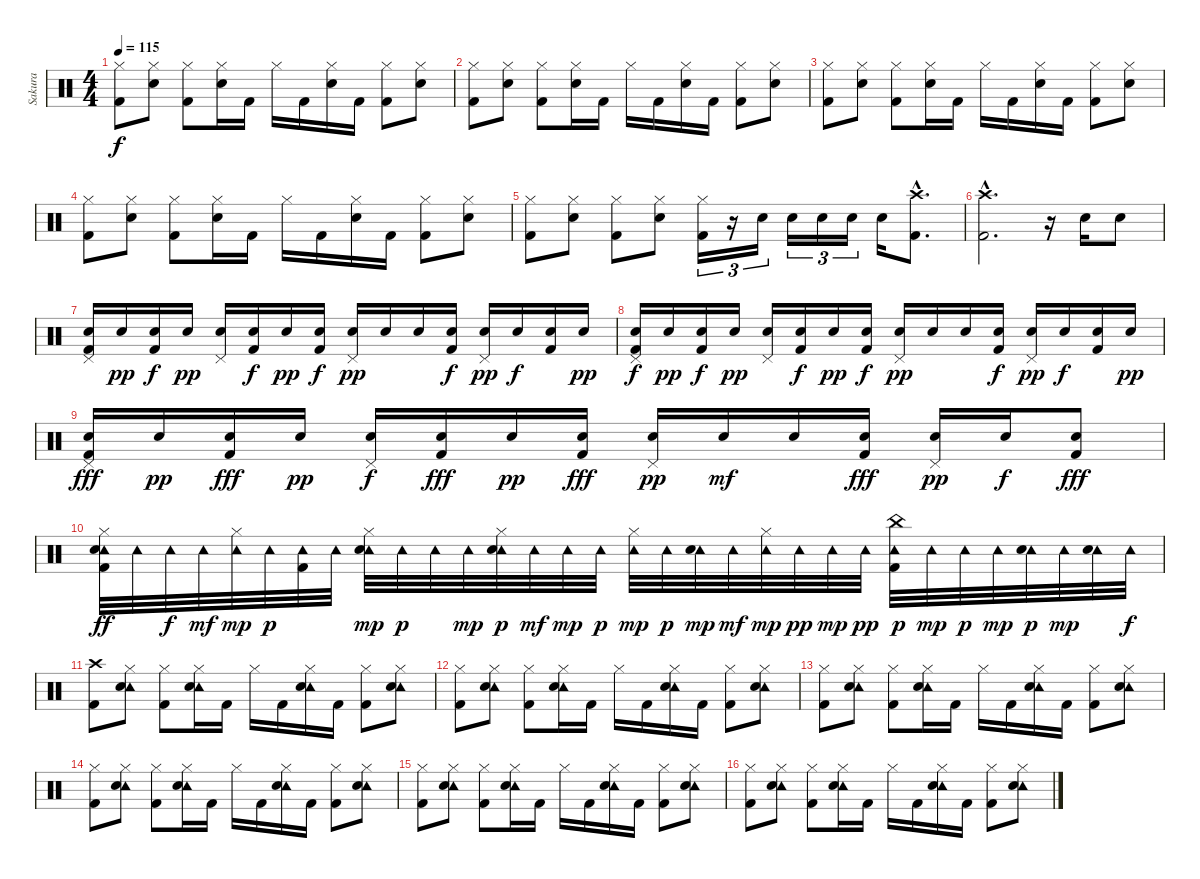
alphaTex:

\track ("Sakura" "Sakura") {instrument percussion}
\staff {score}
\articulation defaults
\ts (4 4)
\tempo 115
\clef neutral
\ks c
("Hi-Hat (closed)" "Kick (hit) 2").8{dy f} ("Hi-Hat (closed)" "Electric Snare (hit)").8 ("Hi-Hat (closed)" "Kick (hit) 2").8 ("Hi-Hat (closed)" "Electric Snare (hit)").16 "Kick (hit) 2".16 "Hi-Hat (closed)".16 "Kick (hit) 2".16 ("Hi-Hat (closed)" "Electric Snare (hit)").16 "Kick (hit) 2".16 ("Hi-Hat (closed)" "Kick (hit) 2").8 ("Hi-Hat (closed)" "Electric Snare (hit)").8 |
("Hi-Hat (closed)" "Kick (hit) 2").8 ("Hi-Hat (closed)" "Electric Snare (hit)").8 ("Hi-Hat (closed)" "Kick (hit) 2").8 ("Hi-Hat (closed)" "Electric Snare (hit)").16 "Kick (hit) 2".16 "Hi-Hat (closed)".16 "Kick (hit) 2".16 ("Hi-Hat (closed)" "Electric Snare (hit)").16 "Kick (hit) 2".16 ("Hi-Hat (closed)" "Kick (hit) 2").8 ("Hi-Hat (closed)" "Electric Snare (hit)").8 |
("Hi-Hat (closed)" "Kick (hit) 2").8 ("Hi-Hat (closed)" "Electric Snare (hit)").8 ("Hi-Hat (closed)" "Kick (hit) 2").8 ("Hi-Hat (closed)" "Electric Snare (hit)").16 "Kick (hit) 2".16 "Hi-Hat (closed)".16 "Kick (hit) 2".16 ("Hi-Hat (closed)" "Electric Snare (hit)").16 "Kick (hit) 2".16 ("Hi-Hat (closed)" "Kick (hit) 2").8 ("Hi-Hat (closed)" "Electric Snare (hit)").8 |
("Hi-Hat (closed)" "Kick (hit) 2").8 ("Hi-Hat (closed)" "Electric Snare (hit)").8 ("Hi-Hat (closed)" "Kick (hit) 2").8 ("Hi-Hat (closed)" "Electric Snare (hit)").16 "Kick (hit) 2".16 "Hi-Hat (closed)".16 "Kick (hit) 2".16 ("Hi-Hat (closed)" "Electric Snare (hit)").16 "Kick (hit) 2".16 ("Hi-Hat (closed)" "Kick (hit) 2").8 ("Hi-Hat (closed)" "Electric Snare (hit)").8 |
("Hi-Hat (closed)" "Kick (hit) 2").8 ("Hi-Hat (closed)" "Electric Snare (hit)").8 ("Hi-Hat (closed)" "Kick (hit) 2").8 ("Hi-Hat (closed)" "Electric Snare (hit)").8 ("Hi-Hat (closed)" "Kick (hit) 2").16{tu (3 2)} r.16{tu (3 2)} "Electric Snare (hit)".16{tu (3 2)} "Electric Snare (hit)".16{tu (3 2)} "Electric Snare (hit)".16{tu (3 2)} "Electric Snare (hit)".16{tu (3 2)} "Electric Snare (hit)".16 ("Crash high (hit)"{hac} "Kick (hit) 2"{hac}).8{d} |
("Crash high (hit)"{hac} "Kick (hit) 2"{hac}).2{d} r.16 "Electric Snare (hit)".16 "Electric Snare (hit)".8 |
("Pedal Hi-Hat (hit)" "Electric Snare (hit)" "Kick (hit) 2").16 "Electric Snare (hit)".16{dy pp} ("Electric Snare (hit)" "Kick (hit) 2").16{dy f} "Electric Snare (hit)".16{dy pp} ("Pedal Hi-Hat (hit)" "Electric Snare (hit)").16 ("Electric Snare (hit)" "Kick (hit) 2").16{dy f} "Electric Snare (hit)".16{dy pp} ("Electric Snare (hit)" "Kick (hit) 2").16{dy f} ("Pedal Hi-Hat (hit)" "Electric Snare (hit)").16{dy pp} "Electric Snare (hit)".16 "Electric Snare (hit)".16 ("Electric Snare (hit)" "Kick (hit) 2").16{dy f} ("Pedal Hi-Hat (hit)" "Electric Snare (hit)").16{dy pp} "Electric Snare (hit)".16{dy f} ("Electric Snare (hit)" "Kick (hit) 2").16 "Electric Snare (hit)".16{dy pp} |
("Pedal Hi-Hat (hit)" "Electric Snare (hit)" "Kick (hit) 2").16{dy f} "Electric Snare (hit)".16{dy pp} ("Electric Snare (hit)" "Kick (hit) 2").16{dy f} "Electric Snare (hit)".16{dy pp} ("Pedal Hi-Hat (hit)" "Electric Snare (hit)").16 ("Electric Snare (hit)" "Kick (hit) 2").16{dy f} "Electric Snare (hit)".16{dy pp} ("Electric Snare (hit)" "Kick (hit) 2").16{dy f} ("Pedal Hi-Hat (hit)" "Electric Snare (hit)").16{dy pp} "Electric Snare (hit)".16 "Electric Snare (hit)".16 ("Electric Snare (hit)" "Kick (hit) 2").16{dy f} ("Pedal Hi-Hat (hit)" "Electric Snare (hit)").16{dy pp} "Electric Snare (hit)".16{dy f} ("Electric Snare (hit)" "Kick (hit) 2").16 "Electric Snare (hit)".16{dy pp} |
("Pedal Hi-Hat (hit)" "Electric Snare (hit)" "Kick (hit) 2").16{dy fff} "Electric Snare (hit)".16{dy pp} ("Electric Snare (hit)" "Kick (hit) 2").16{dy fff} "Electric Snare (hit)".16{dy pp} ("Pedal Hi-Hat (hit)" "Electric Snare (hit)").16{dy f} ("Electric Snare (hit)" "Kick (hit) 2").16{dy fff} "Electric Snare (hit)".16{dy pp} ("Electric Snare (hit)" "Kick (hit) 2").16{dy fff} ("Pedal Hi-Hat (hit)" "Electric Snare (hit)").16{dy pp} "Electric Snare (hit)".16{dy mf} "Electric Snare (hit)".16 ("Electric Snare (hit)" "Kick (hit) 2").16{dy fff} ("Pedal Hi-Hat (hit)" "Electric Snare (hit)").16{dy pp} "Electric Snare (hit)".16{dy f} ("Electric Snare (hit)" "Kick (hit) 2").8{dy fff} |
("Hi-Hat (closed)" "Tambourine (hit)" "Electric Snare (hit)" "Kick (hit) 2").32{dy ff} "Tambourine (hit)".32 "Tambourine (hit)".32{dy f} "Tambourine (hit)".32{dy mf} ("Hi-Hat (closed)" "Tambourine (hit)").32{dy mp} "Tambourine (hit)".32{dy p} ("Tambourine (hit)" "Kick (hit) 2").32 "Tambourine (hit)".32 ("Hi-Hat (closed)" "Tambourine (hit)" "Electric Snare (hit)").32{dy mp} "Tambourine (hit)".32{dy p} "Tambourine (hit)".32 "Tambourine (hit)".32{dy mp} ("Hi-Hat (closed)" "Tambourine (hit)" "Electric Snare (hit)").32{dy p} "Tambourine (hit)".32{dy mf} "Tambourine (hit)".32{dy mp} "Tambourine (hit)".32{dy p} ("Hi-Hat (closed)" "Tambourine (hit)").32{dy mp} "Tambourine (hit)".32{dy p} ("Tambourine (hit)" "Electric Snare (hit)").32{dy mp} "Tambourine (hit)".32{dy mf} ("Hi-Hat (closed)" "Tambourine (hit)").32{dy mp} "Tambourine (hit)".32{dy pp} "Tambourine (hit)".32{dy mp} "Tambourine (hit)".32{dy pp} ("China (hit)" "Tambourine (hit)" "Kick (hit) 2").32{dy p} "Tambourine (hit)".32{dy mp} "Tambourine (hit)".32{dy p} "Tambourine (hit)".32{dy mp} ("Tambourine (hit)" "Electric Snare (hit)").32{dy p} "Tambourine (hit)".32{dy mp} ("Tambourine (hit)" "Electric Snare (hit)").32 "Tambourine (hit)".32{dy f} |
("Crash high (hit)" "Kick (hit) 2").8 ("Hi-Hat (closed)" "Tambourine (hit)" "Electric Snare (hit)").8 ("Hi-Hat (closed)" "Kick (hit) 2").8 ("Hi-Hat (closed)" "Tambourine (hit)" "Electric Snare (hit)").16 "Kick (hit) 2".16 "Hi-Hat (closed)".16 "Kick (hit) 2".16 ("Hi-Hat (closed)" "Tambourine (hit)" "Electric Snare (hit)").16 "Kick (hit) 2".16 ("Hi-Hat (closed)" "Kick (hit) 2").8 ("Hi-Hat (closed)" "Tambourine (hit)" "Electric Snare (hit)").8 |
("Hi-Hat (closed)" "Kick (hit) 2").8 ("Hi-Hat (closed)" "Tambourine (hit)" "Electric Snare (hit)").8 ("Hi-Hat (closed)" "Kick (hit) 2").8 ("Hi-Hat (closed)" "Tambourine (hit)" "Electric Snare (hit)").16 "Kick (hit) 2".16 "Hi-Hat (closed)".16 "Kick (hit) 2".16 ("Hi-Hat (closed)" "Tambourine (hit)" "Electric Snare (hit)").16 "Kick (hit) 2".16 ("Hi-Hat (closed)" "Kick (hit) 2").8 ("Hi-Hat (closed)" "Tambourine (hit)" "Electric Snare (hit)").8 |
("Hi-Hat (closed)" "Kick (hit) 2").8 ("Hi-Hat (closed)" "Tambourine (hit)" "Electric Snare (hit)").8 ("Hi-Hat (closed)" "Kick (hit) 2").8 ("Hi-Hat (closed)" "Tambourine (hit)" "Electric Snare (hit)").16 "Kick (hit) 2".16 "Hi-Hat (closed)".16 "Kick (hit) 2".16 ("Hi-Hat (closed)" "Tambourine (hit)" "Electric Snare (hit)").16 "Kick (hit) 2".16 ("Hi-Hat (closed)" "Kick (hit) 2").8 ("Hi-Hat (closed)" "Tambourine (hit)" "Electric Snare (hit)").8 |
("Hi-Hat (closed)" "Kick (hit) 2").8 ("Hi-Hat (closed)" "Tambourine (hit)" "Electric Snare (hit)").8 ("Hi-Hat (closed)" "Kick (hit) 2").8 ("Hi-Hat (closed)" "Tambourine (hit)" "Electric Snare (hit)").16 "Kick (hit) 2".16 "Hi-Hat (closed)".16 "Kick (hit) 2".16 ("Hi-Hat (closed)" "Tambourine (hit)" "Electric Snare (hit)").16 "Kick (hit) 2".16 ("Hi-Hat (closed)" "Kick (hit) 2").8 ("Hi-Hat (closed)" "Tambourine (hit)" "Electric Snare (hit)").8 |
("Hi-Hat (closed)" "Kick (hit) 2").8 ("Hi-Hat (closed)" "Tambourine (hit)" "Electric Snare (hit)").8 ("Hi-Hat (closed)" "Kick (hit) 2").8 ("Hi-Hat (closed)" "Tambourine (hit)" "Electric Snare (hit)").16 "Kick (hit) 2".16 "Hi-Hat (closed)".16 "Kick (hit) 2".16 ("Hi-Hat (closed)" "Tambourine (hit)" "Electric Snare (hit)").16 "Kick (hit) 2".16 ("Hi-Hat (closed)" "Kick (hit) 2").8 ("Hi-Hat (closed)" "Tambourine (hit)" "Electric Snare (hit)").8 |
("Hi-Hat (closed)" "Kick (hit) 2").8 ("Hi-Hat (closed)" "Tambourine (hit)" "Electric Snare (hit)").8 ("Hi-Hat (closed)" "Kick (hit) 2").8 ("Hi-Hat (closed)" "Tambourine (hit)" "Electric Snare (hit)").16 "Kick (hit) 2".16 "Hi-Hat (closed)".16 "Kick (hit) 2".16 ("Hi-Hat (closed)" "Tambourine (hit)" "Electric Snare (hit)").16 "Kick (hit) 2".16 ("Hi-Hat (closed)" "Kick (hit) 2").8 ("Hi-Hat (closed)" "Tambourine (hit)" "Electric Snare (hit)").8
